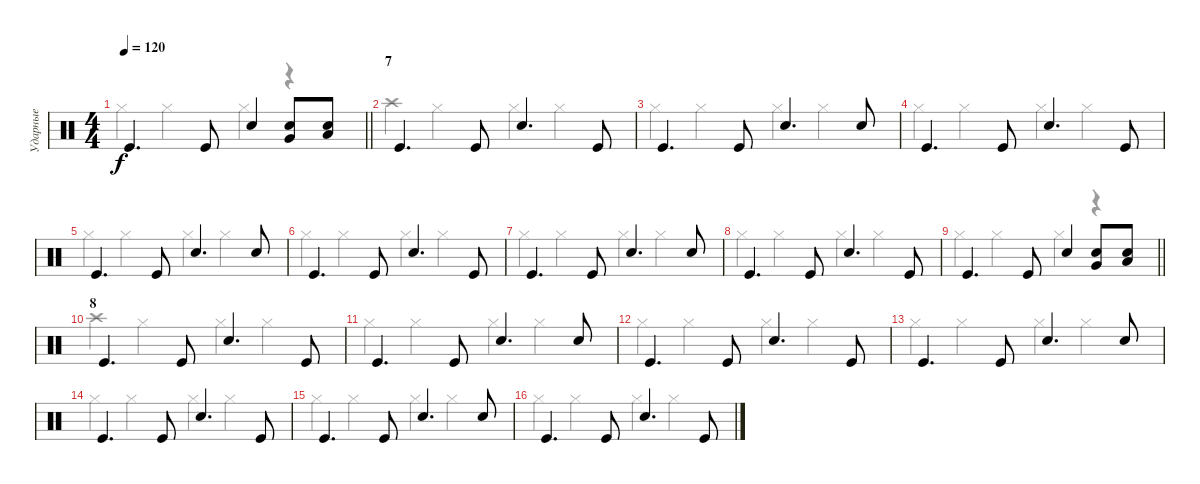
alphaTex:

\track ("Ударные" "Ударные") {instrument percussion}
\staff {score}
\articulation defaults
\voice
\ts (4 4)
\tempo 120
\clef neutral
\barLineRight lightlight
\ks c "Kick (hit)".4{d dy f} "Kick (hit)".8 "Snare (hit) 2".4
("Snare (hit) 2" "Very Low Tom (hit)").8 ("Snare (hit) 2" "Low Floor Tom (hit)").8 |
\section ("" "7")
"Kick (hit)".4{d} "Kick (hit)".8 "Snare (hit) 2".4{d} "Kick (hit)".8 |
"Kick (hit)".4{d} "Kick (hit)".8 "Snare (hit) 2".4{d} "Snare (hit) 2".8 |
"Kick (hit)".4{d} "Kick (hit)".8 "Snare (hit) 2".4{d} "Kick (hit)".8 |
"Kick (hit)".4{d} "Kick (hit)".8 "Snare (hit) 2".4{d} "Snare (hit) 2".8 |
"Kick (hit)".4{d} "Kick (hit)".8 "Snare (hit) 2".4{d} "Kick (hit)".8 |
"Kick (hit)".4{d} "Kick (hit)".8 "Snare (hit) 2".4{d} "Snare (hit) 2".8 |
"Kick (hit)".4{d} "Kick (hit)".8 "Snare (hit) 2".4{d} "Kick (hit)".8 |
\barLineRight lightlight "Kick (hit)".4{d} "Kick (hit)".8 "Snare (hit) 2".4
("Snare (hit) 2" "Very Low Tom (hit)").8 ("Snare (hit) 2" "Low Floor Tom (hit)").8 |
\section ("" "8")
"Kick (hit)".4{d} "Kick (hit)".8 "Snare (hit) 2".4{d} "Kick (hit)".8 |
"Kick (hit)".4{d} "Kick (hit)".8 "Snare (hit) 2".4{d} "Snare (hit) 2".8 |
"Kick (hit)".4{d} "Kick (hit)".8 "Snare (hit) 2".4{d} "Kick (hit)".8 |
"Kick (hit)".4{d} "Kick (hit)".8 "Snare (hit) 2".4{d} "Snare (hit) 2".8 |
"Kick (hit)".4{d} "Kick (hit)".8 "Snare (hit) 2".4{d} "Kick (hit)".8 |
"Kick (hit)".4{d} "Kick (hit)".8 "Snare (hit) 2".4{d} "Snare (hit) 2".8 |
"Kick (hit)".4{d} "Kick (hit)".8 "Snare (hit) 2".4{d} "Kick (hit)".8
\voice
\clef neutral
\ottava regular
\simile none
\barLineRight lightlight
\ks c "Hi-Hat (closed)".4{dy f} "Hi-Hat (closed)".4 "Hi-Hat (closed)".4
r.4 |
"Crash high (hit)".4 "Hi-Hat (closed)".4 "Hi-Hat (closed)".4 "Hi-Hat (closed)".4 |
"Hi-Hat (closed)".4 "Hi-Hat (closed)".4 "Hi-Hat (closed)".4 "Hi-Hat (closed)".4 |
"Hi-Hat (closed)".4 "Hi-Hat (closed)".4 "Hi-Hat (closed)".4 "Hi-Hat (closed)".4 |
"Hi-Hat (closed)".4 "Hi-Hat (closed)".4 "Hi-Hat (closed)".4 "Hi-Hat (closed)".4 |
"Hi-Hat (closed)".4 "Hi-Hat (closed)".4 "Hi-Hat (closed)".4 "Hi-Hat (closed)".4 |
"Hi-Hat (closed)".4 "Hi-Hat (closed)".4 "Hi-Hat (closed)".4 "Hi-Hat (closed)".4 |
"Hi-Hat (closed)".4 "Hi-Hat (closed)".4 "Hi-Hat (closed)".4 "Hi-Hat (closed)".4 |
\barLineRight lightlight "Hi-Hat (closed)".4 "Hi-Hat (closed)".4 "Hi-Hat (closed)".4
r.4 |
"Crash high (hit)".4 "Hi-Hat (closed)".4 "Hi-Hat (closed)".4 "Hi-Hat (closed)".4 |
"Hi-Hat (closed)".4 "Hi-Hat (closed)".4 "Hi-Hat (closed)".4 "Hi-Hat (closed)".4 |
"Hi-Hat (closed)".4 "Hi-Hat (closed)".4 "Hi-Hat (closed)".4 "Hi-Hat (closed)".4 |
"Hi-Hat (closed)".4 "Hi-Hat (closed)".4 "Hi-Hat (closed)".4 "Hi-Hat (closed)".4 |
"Hi-Hat (closed)".4 "Hi-Hat (closed)".4 "Hi-Hat (closed)".4 "Hi-Hat (closed)".4 |
"Hi-Hat (closed)".4 "Hi-Hat (closed)".4 "Hi-Hat (closed)".4 "Hi-Hat (closed)".4 |
"Hi-Hat (closed)".4 "Hi-Hat (closed)".4 "Hi-Hat (closed)".4 "Hi-Hat (closed)".4
